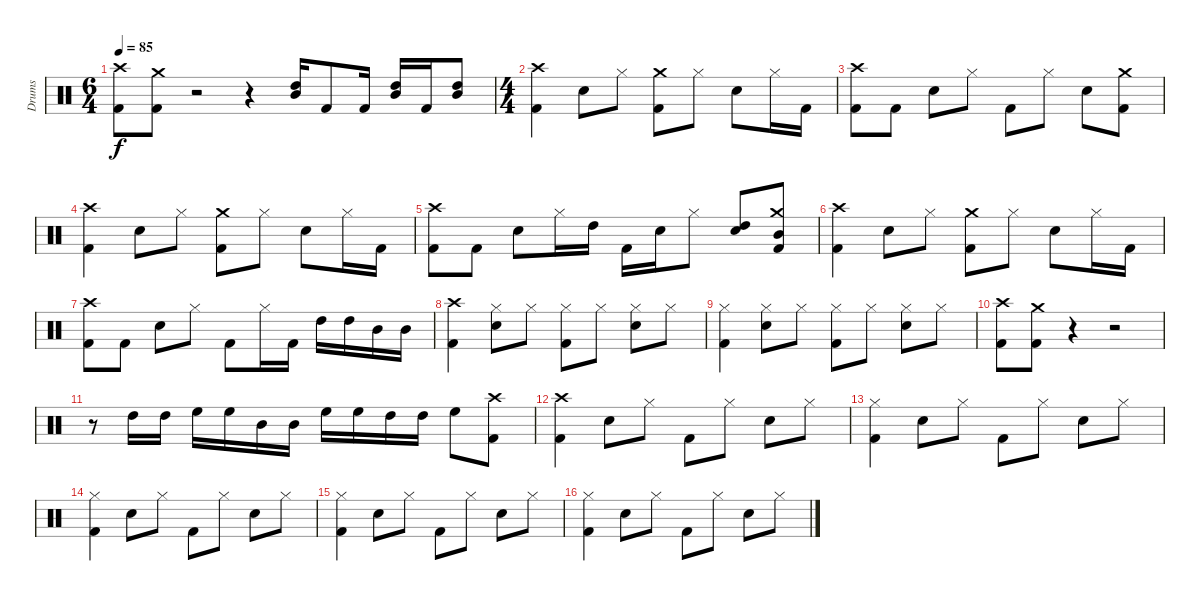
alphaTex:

\track ("Drums" "Drums") {instrument percussion}
\staff {score}
\articulation defaults
\ts (6 4)
\tempo 85
\clef neutral
\ks c
("Kick (hit) 2" "Crash high (hit)").8{dy f} ("Kick (hit) 2" "Crash medium (hit)").8 r.2 r.4 ("Mid Tom (hit)" "High Tom (hit)").16 "Kick (hit) 2".8 "Kick (hit) 2".16 ("Mid Tom (hit)" "High Tom (hit)").16 "Kick (hit) 2".16 ("Mid Tom (hit)" "High Tom (hit)").8 |
\ts (4 4)
("Kick (hit) 2" "Crash high (hit)").4 "Snare (hit) 2".8 "Hi-Hat (closed)".8 ("Kick (hit) 2" "Crash medium (hit)").8 "Hi-Hat (closed)".8 "Snare (hit) 2".8 "Hi-Hat (closed)".16 "Kick (hit) 2".16 |
("Kick (hit) 2" "Crash high (hit)").8 "Kick (hit) 2".8 "Snare (hit) 2".8 "Hi-Hat (closed)".8 "Kick (hit) 2".8 "Hi-Hat (closed)".8 "Snare (hit) 2".8 ("Kick (hit) 2" "Crash medium (hit)").8 |
("Kick (hit) 2" "Crash high (hit)").4 "Snare (hit) 2".8 "Hi-Hat (closed)".8 ("Kick (hit) 2" "Crash medium (hit)").8 "Hi-Hat (closed)".8 "Snare (hit) 2".8 "Hi-Hat (closed)".16 "Kick (hit) 2".16 |
("Kick (hit) 2" "Crash high (hit)").8 "Kick (hit) 2".8 "Snare (hit) 2".8 "Hi-Hat (closed)".16 "High Tom (hit)".16 "Kick (hit) 2".16 "Snare (hit) 2".16 "Hi-Hat (closed)".8 ("Snare (hit) 2" "High Tom (hit)").8 ("Kick (hit) 2" "Crash medium (hit)" "Mid Tom (hit)").8 |
("Kick (hit) 2" "Crash high (hit)").4 "Snare (hit) 2".8 "Hi-Hat (closed)".8 ("Kick (hit) 2" "Crash medium (hit)").8 "Hi-Hat (closed)".8 "Snare (hit) 2".8 "Hi-Hat (closed)".16 "Kick (hit) 2".16 |
("Kick (hit) 2" "Crash high (hit)").8 "Kick (hit) 2".8 "Snare (hit) 2".8 "Hi-Hat (closed)".8 "Kick (hit) 2".8 "Hi-Hat (closed)".16 "Kick (hit) 2".16 "High Tom (hit)".16 "High Tom (hit)".16 "Mid Tom (hit)".16 "Mid Tom (hit)".16 |
("Kick (hit) 2" "Crash high (hit)").4 ("Snare (hit) 2" "Hi-Hat (closed)").8 "Hi-Hat (closed)".8 ("Kick (hit) 2" "Hi-Hat (closed)").8 "Hi-Hat (closed)".8 ("Snare (hit) 2" "Hi-Hat (closed)").8 "Hi-Hat (closed)".8 |
("Kick (hit) 2" "Hi-Hat (closed)").4 ("Snare (hit) 2" "Hi-Hat (closed)").8 "Hi-Hat (closed)".8 ("Kick (hit) 2" "Hi-Hat (closed)").8 "Hi-Hat (closed)".8 ("Snare (hit) 2" "Hi-Hat (closed)").8 "Hi-Hat (closed)".8 |
("Kick (hit) 2" "Crash high (hit)").8 ("Kick (hit) 2" "Crash medium (hit)").8 r.4 r.2 |
r.8 "High Tom (hit)".16 "High Tom (hit)".16 "High Floor Tom (hit)".16 "High Floor Tom (hit)".16 "Mid Tom (hit)".16 "Mid Tom (hit)".16 "High Floor Tom (hit)".16 "High Floor Tom (hit)".16 "High Tom (hit)".16 "High Tom (hit)".16 "High Floor Tom (hit)".8 ("Kick (hit) 2" "Crash high (hit)").8 |
("Kick (hit) 2" "Crash high (hit)").4 "Snare (hit) 2".8 "Hi-Hat (closed)".8 "Kick (hit) 2".8 "Hi-Hat (closed)".8 "Snare (hit) 2".8 "Hi-Hat (closed)".8 |
("Kick (hit) 2" "Hi-Hat (closed)").4 "Snare (hit) 2".8 "Hi-Hat (closed)".8 "Kick (hit) 2".8 "Hi-Hat (closed)".8 "Snare (hit) 2".8 "Hi-Hat (closed)".8 |
("Kick (hit) 2" "Hi-Hat (closed)").4 "Snare (hit) 2".8 "Hi-Hat (closed)".8 "Kick (hit) 2".8 "Hi-Hat (closed)".8 "Snare (hit) 2".8 "Hi-Hat (closed)".8 |
("Kick (hit) 2" "Hi-Hat (closed)").4 "Snare (hit) 2".8 "Hi-Hat (closed)".8 "Kick (hit) 2".8 "Hi-Hat (closed)".8 "Snare (hit) 2".8 "Hi-Hat (closed)".8 |
("Kick (hit) 2" "Hi-Hat (closed)").4 "Snare (hit) 2".8 "Hi-Hat (closed)".8 "Kick (hit) 2".8 "Hi-Hat (closed)".8 "Snare (hit) 2".8 "Hi-Hat (closed)".8
